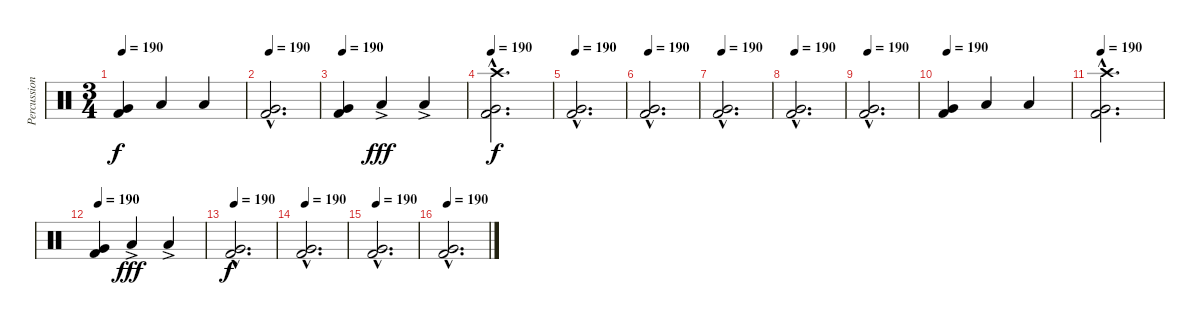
\track ("Percussion" "Percussion") {instrument percussion}
\staff {score}
\articulation defaults
\ts (3 4)
\tempo 190
\clef neutral
\ks c
("Very Low Tom (hit)" "Kick (hit) 2").4{dy f} "Low Floor Tom (hit)".4 "Low Floor Tom (hit)".4 |
\tempo 190
("Very Low Tom (hit)"{hac} "Kick (hit) 2"{hac}).2{d} |
\tempo 190
("Very Low Tom (hit)" "Kick (hit) 2").4 "Low Floor Tom (hit)"{ac}.4{dy fff} "Low Floor Tom (hit)"{ac}.4 |
\tempo 190
("Crash high (hit)"{hac} "Very Low Tom (hit)"{hac} "Kick (hit) 2"{hac}).2{d dy f} |
\tempo 190
("Very Low Tom (hit)"{hac} "Kick (hit) 2"{hac}).2{d} |
\tempo 190
("Very Low Tom (hit)"{hac} "Kick (hit) 2"{hac}).2{d} |
\tempo 190
("Very Low Tom (hit)"{hac} "Kick (hit) 2"{hac}).2{d} |
\tempo 190
("Very Low Tom (hit)"{hac} "Kick (hit) 2"{hac}).2{d} |
\tempo 190
("Very Low Tom (hit)"{hac} "Kick (hit) 2"{hac}).2{d} |
\tempo 190
("Very Low Tom (hit)" "Kick (hit) 2").4 "Low Floor Tom (hit)".4 "Low Floor Tom (hit)".4 |
\tempo 190
("Crash high (hit)"{hac} "Very Low Tom (hit)"{hac} "Kick (hit) 2"{hac}).2{d} |
\tempo 190
("Very Low Tom (hit)" "Kick (hit) 2").4 "Low Floor Tom (hit)"{ac}.4{dy fff} "Low Floor Tom (hit)"{ac}.4 |
\tempo 190
("Very Low Tom (hit)"{hac} "Kick (hit) 2"{hac}).2{d dy f} |
\tempo 190
("Very Low Tom (hit)"{hac} "Kick (hit) 2"{hac}).2{d} |
\tempo 190
("Very Low Tom (hit)"{hac} "Kick (hit) 2"{hac}).2{d} |
\tempo 190
("Very Low Tom (hit)"{hac} "Kick (hit) 2"{hac}).2{d}
